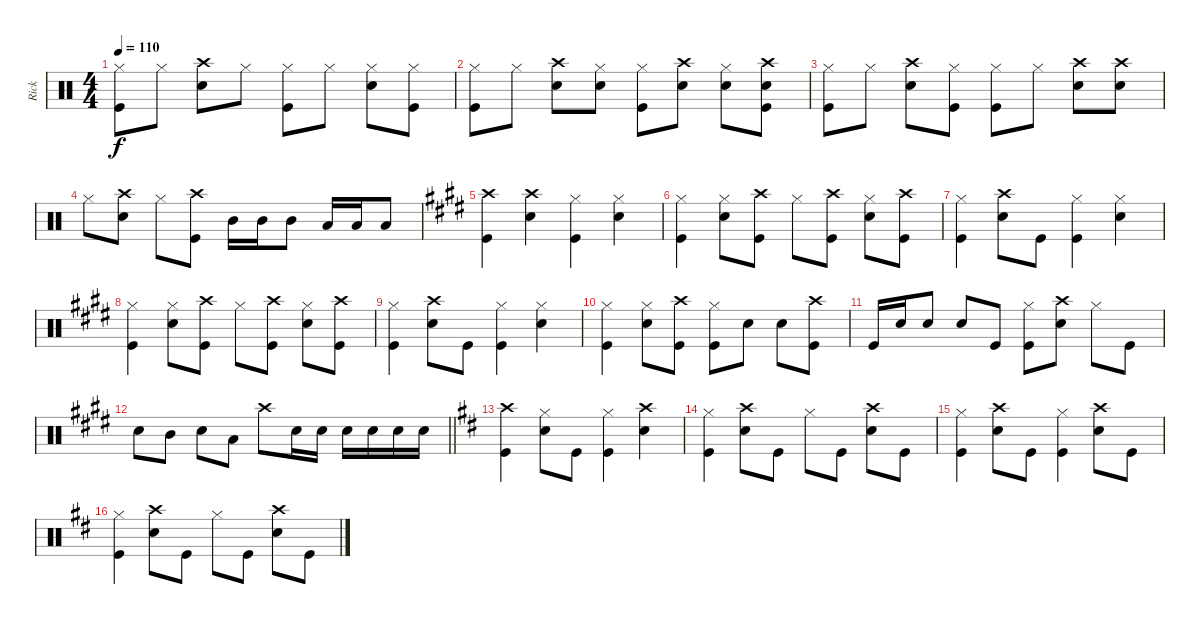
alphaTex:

\track ("Rick" "Rick") {instrument percussion}
\staff {score}
\articulation defaults
\ts (4 4)
\tempo 110
\clef neutral
\ks c
("Hi-Hat (closed)" "Kick (hit)").8{dy f} "Hi-Hat (closed)".8 ("Crash high (hit)" "Snare (hit) 2").8 "Hi-Hat (closed)".8 ("Hi-Hat (closed)" "Kick (hit)").8 "Hi-Hat (closed)".8 ("Hi-Hat (closed)" "Snare (hit) 2").8 ("Hi-Hat (closed)" "Kick (hit)").8 |
("Hi-Hat (closed)" "Kick (hit)").8 "Hi-Hat (closed)".8 ("Crash high (hit)" "Snare (hit) 2").8 ("Hi-Hat (closed)" "Snare (hit) 2").8 ("Hi-Hat (closed)" "Kick (hit)").8 ("Crash high (hit)" "Snare (hit) 2").8 ("Hi-Hat (closed)" "Snare (hit) 2").8 ("Crash high (hit)" "Snare (hit) 2" "Kick (hit)").8 |
("Hi-Hat (closed)" "Kick (hit)").8 "Hi-Hat (closed)".8 ("Crash high (hit)" "Snare (hit) 2").8 ("Hi-Hat (closed)" "Kick (hit)").8 ("Hi-Hat (closed)" "Kick (hit)").8 "Hi-Hat (closed)".8 ("Crash high (hit)" "Snare (hit) 2").8 ("Crash high (hit)" "Snare (hit) 2").8 |
"Hi-Hat (closed)".8 ("Crash high (hit)" "Snare (hit) 2").8 "Hi-Hat (closed)".8 ("Crash high (hit)" "Kick (hit)").8 "Mid Tom (hit)".16 "Mid Tom (hit)".16 "Mid Tom (hit)".8 "Low Tom (hit)".16 "Low Tom (hit)".16 "Low Tom (hit)".8 |
\ks e
("Crash high (hit)" "Kick (hit)").4 ("Crash high (hit)" "Snare (hit) 2").4 ("Hi-Hat (closed)" "Kick (hit)").4 ("Hi-Hat (closed)" "Snare (hit) 2").4 |
("Hi-Hat (closed)" "Kick (hit)").4 ("Hi-Hat (closed)" "Snare (hit) 2").8 ("Crash high (hit)" "Kick (hit)").8 "Hi-Hat (closed)".8 ("Crash high (hit)" "Kick (hit)").8 ("Hi-Hat (closed)" "Snare (hit) 2").8 ("Crash high (hit)" "Kick (hit)").8 |
("Hi-Hat (closed)" "Kick (hit)").4 ("Crash high (hit)" "Snare (hit) 2").8 "Kick (hit)".8 ("Hi-Hat (closed)" "Kick (hit)").4 ("Hi-Hat (closed)" "Snare (hit) 2").4 |
("Hi-Hat (closed)" "Kick (hit)").4 ("Hi-Hat (closed)" "Snare (hit) 2").8 ("Crash high (hit)" "Kick (hit)").8 "Hi-Hat (closed)".8 ("Crash high (hit)" "Kick (hit)").8 ("Hi-Hat (closed)" "Snare (hit) 2").8 ("Crash high (hit)" "Kick (hit)").8 |
("Hi-Hat (closed)" "Kick (hit)").4 ("Crash high (hit)" "Snare (hit) 2").8 "Kick (hit)".8 ("Hi-Hat (closed)" "Kick (hit)").4 ("Hi-Hat (closed)" "Snare (hit) 2").4 |
("Hi-Hat (closed)" "Kick (hit)").4 ("Hi-Hat (closed)" "Snare (hit) 2").8 ("Crash high (hit)" "Kick (hit)").8 ("Hi-Hat (closed)" "Kick (hit)").8 "Snare (hit) 2".8 "Snare (hit) 2".8 ("Crash high (hit)" "Kick (hit)").8 |
"Kick (hit)".16 "Snare (hit) 2".16 "Snare (hit) 2".8 "Snare (hit) 2".8 "Kick (hit)".8 ("Hi-Hat (closed)" "Kick (hit)").8 ("Crash high (hit)" "Snare (hit) 2").8 "Hi-Hat (closed)".8 "Kick (hit)".8 |
\barLineRight lightlight "Snare (hit) 2".8 "Mid Tom (hit)".8 "Snare (hit) 2".8 "Low Tom (hit)".8 "Crash high (hit)".8 "Snare (hit) 2".16 "Snare (hit) 2".16 "Snare (hit) 2".16 "Snare (hit) 2".16 "Snare (hit) 2".16 "Snare (hit) 2".16
|
\ks d
("Crash high (hit)" "Kick (hit)").4 ("Hi-Hat (closed)" "Snare (hit) 2").8 "Kick (hit)".8 ("Hi-Hat (closed)" "Kick (hit)").4 ("Crash high (hit)" "Snare (hit) 2").4 |
("Hi-Hat (closed)" "Kick (hit)").4 ("Crash high (hit)" "Snare (hit) 2").8 "Kick (hit)".8 "Hi-Hat (closed)".8 "Kick (hit)".8 ("Crash high (hit)" "Snare (hit) 2").8 "Kick (hit)".8 |
("Hi-Hat (closed)" "Kick (hit)").4 ("Crash high (hit)" "Snare (hit) 2").8 "Kick (hit)".8 ("Hi-Hat (closed)" "Kick (hit)").4 ("Crash high (hit)" "Snare (hit) 2").8 "Kick (hit)".8 |
("Hi-Hat (closed)" "Kick (hit)").4 ("Crash high (hit)" "Snare (hit) 2").8 "Kick (hit)".8 "Hi-Hat (closed)".8 "Kick (hit)".8 ("Crash high (hit)" "Snare (hit) 2").8 "Kick (hit)".8
